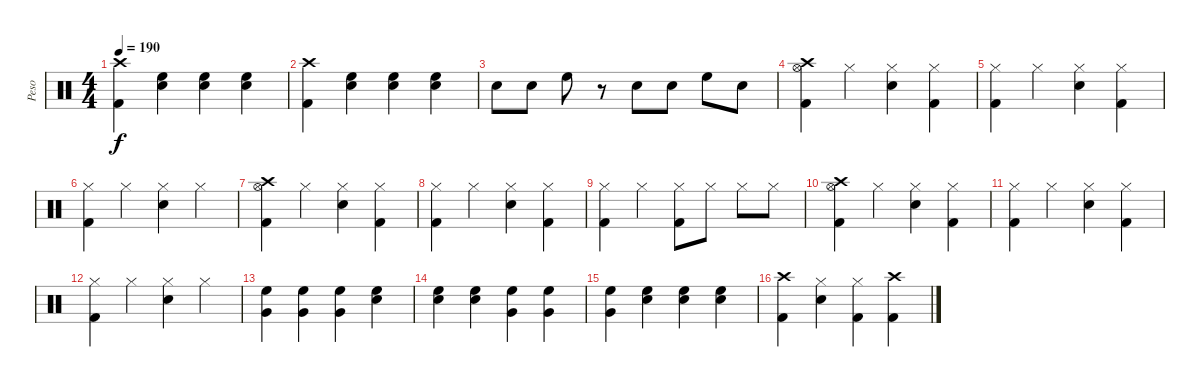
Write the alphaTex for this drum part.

\track ("Peso" "Peso") {instrument percussion}
\staff {score}
\articulation defaults
\ts (4 4)
\tempo 190
\clef neutral
\ks c
("Crash high (hit)" "Kick (hit) 2").4{dy f} ("High Floor Tom (hit)" "Snare (hit) 2").4 ("High Floor Tom (hit)" "Snare (hit) 2").4 ("High Floor Tom (hit)" "Snare (hit) 2").4 |
("Crash high (hit)" "Kick (hit) 2").4 ("High Floor Tom (hit)" "Snare (hit) 2").4 ("High Floor Tom (hit)" "Snare (hit) 2").4 ("High Floor Tom (hit)" "Snare (hit) 2").4 |
"Snare (hit) 2".8 "Snare (hit) 2".8 "High Floor Tom (hit)".8 r.8 "Snare (hit) 2".8 "Snare (hit) 2".8 "High Floor Tom (hit)".8 "Snare (hit)"{x}.8 |
("Crash high (hit)" "Hi-Hat (open)" "Kick (hit) 2").4 "Hi-Hat (closed)".4 ("Hi-Hat (closed)" "Snare (hit) 2").4 ("Hi-Hat (closed)" "Kick (hit) 2").4 |
("Hi-Hat (closed)" "Kick (hit) 2").4 "Hi-Hat (closed)".4 ("Hi-Hat (closed)" "Snare (hit) 2").4 ("Hi-Hat (closed)" "Kick (hit) 2").4 |
("Hi-Hat (closed)" "Kick (hit) 2").4 "Hi-Hat (closed)".4 ("Hi-Hat (closed)" "Snare (hit) 2").4 "Hi-Hat (closed)".4 |
("Crash high (hit)" "Hi-Hat (open)" "Kick (hit) 2").4 "Hi-Hat (closed)".4 ("Hi-Hat (closed)" "Snare (hit) 2").4 ("Hi-Hat (closed)" "Kick (hit) 2").4 |
("Hi-Hat (closed)" "Kick (hit) 2").4 "Hi-Hat (closed)".4 ("Hi-Hat (closed)" "Snare (hit) 2").4 ("Hi-Hat (closed)" "Kick (hit) 2").4 |
("Hi-Hat (closed)" "Kick (hit) 2").4 "Hi-Hat (closed)".4 ("Hi-Hat (closed)" "Kick (hit) 2").8 "Hi-Hat (closed)".8 "Hi-Hat (closed)".8 "Hi-Hat (closed)".8 |
("Crash high (hit)" "Hi-Hat (open)" "Kick (hit) 2").4 "Hi-Hat (closed)".4 ("Hi-Hat (closed)" "Snare (hit) 2").4 ("Hi-Hat (closed)" "Kick (hit) 2").4 |
("Hi-Hat (closed)" "Kick (hit) 2").4 "Hi-Hat (closed)".4 ("Hi-Hat (closed)" "Snare (hit) 2").4 ("Hi-Hat (closed)" "Kick (hit) 2").4 |
("Hi-Hat (closed)" "Kick (hit) 2").4 "Hi-Hat (closed)".4 ("Hi-Hat (closed)" "Snare (hit) 2").4 "Hi-Hat (closed)".4 |
("High Floor Tom (hit)" "Very Low Tom (hit)").4 ("High Floor Tom (hit)" "Very Low Tom (hit)").4 ("High Floor Tom (hit)" "Very Low Tom (hit)").4 ("High Floor Tom (hit)" "Snare (hit) 2").4 |
("High Floor Tom (hit)" "Snare (hit) 2").4 ("High Floor Tom (hit)" "Snare (hit) 2").4 ("High Floor Tom (hit)" "Very Low Tom (hit)").4 ("High Floor Tom (hit)" "Very Low Tom (hit)").4 |
("High Floor Tom (hit)" "Very Low Tom (hit)").4 ("High Floor Tom (hit)" "Snare (hit) 2").4 ("High Floor Tom (hit)" "Snare (hit) 2").4 ("High Floor Tom (hit)" "Snare (hit) 2").4 |
("Crash high (hit)" "Kick (hit) 2").4 ("Hi-Hat (closed)" "Snare (hit) 2").4 ("Hi-Hat (closed)" "Kick (hit) 2").4 ("Crash high (hit)" "Kick (hit) 2").4
